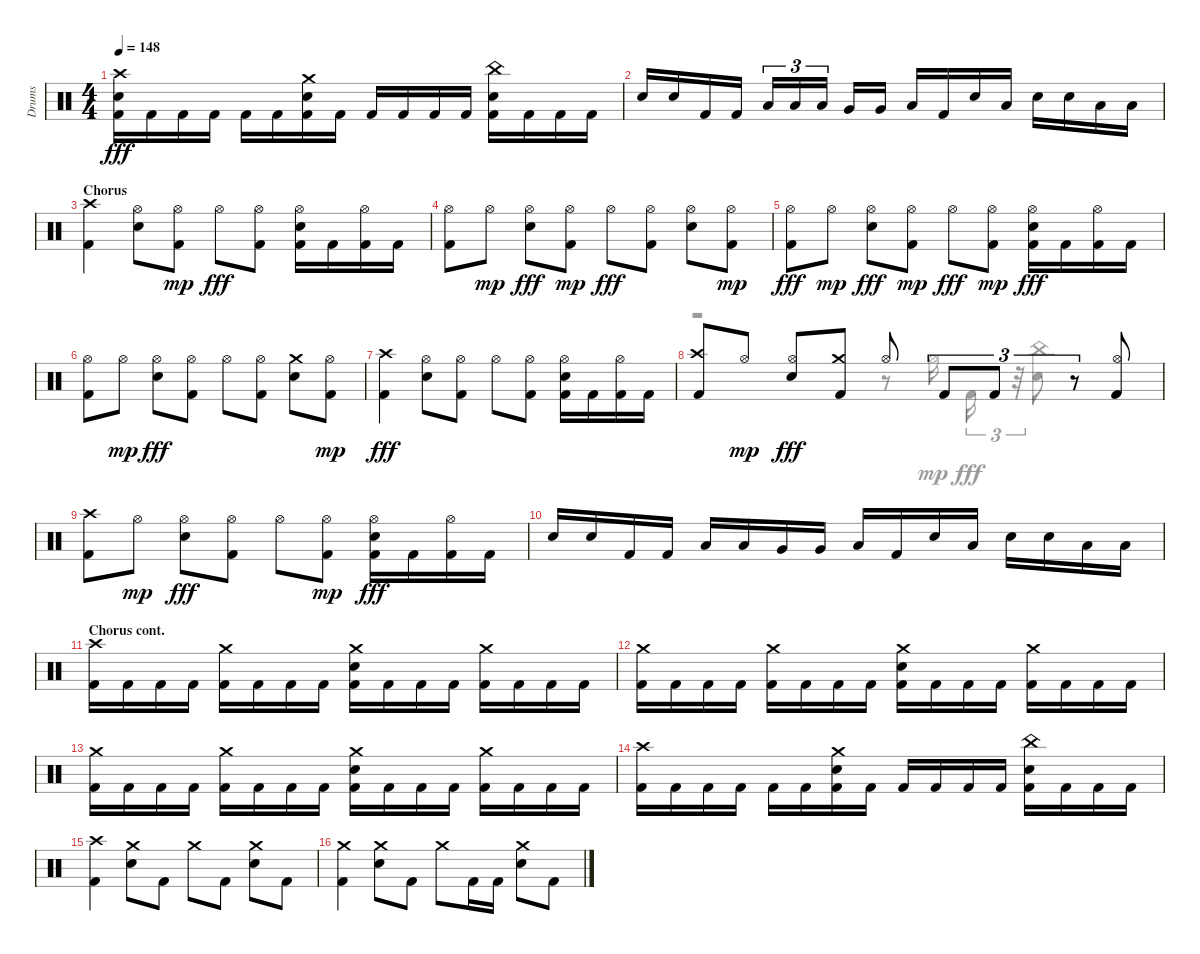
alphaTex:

\track ("Drums" "Drums") {instrument percussion}
\staff {score}
\articulation defaults
\voice
\ts (4 4)
\tempo 148
\clef neutral
\ks aminor
("Kick (hit) 2" "Snare (hit) 2" "Crash high (hit)").16{dy fff} "Kick (hit) 2".16 "Kick (hit) 2".16 "Kick (hit) 2".16 "Kick (hit) 2".16 "Kick (hit) 2".16 ("Snare (hit) 2" "Crash medium (hit)" "Kick (hit) 2").16 "Kick (hit) 2".16 "Kick (hit) 2".16 "Kick (hit) 2".16 "Kick (hit) 2".16 "Kick (hit) 2".16 ("Snare (hit) 2" "China (hit)" "Kick (hit) 2").16 "Kick (hit) 2".16 "Kick (hit) 2".16 "Kick (hit) 2".16 |
"Snare (hit) 2".16 "Snare (hit) 2".16 "Kick (hit) 2".16 "Kick (hit) 2".16 "Low Tom (hit)".16{tu (3 2)} "Low Tom (hit)".16{tu (3 2)} "Low Tom (hit)".16{tu (3 2)} "Very Low Tom (hit)".16 "Very Low Tom (hit)".16 "Low Floor Tom (hit)".16 "Kick (hit) 2".16 "Snare (hit) 2".16 "Low Floor Tom (hit)".16 "Snare (hit) 2".16 "Snare (hit) 2".16 "Low Floor Tom (hit)".16 "Low Floor Tom (hit)".16 |
\section ("" "Chorus")
("Crash high (hit)" "Kick (hit) 2").4 ("Snare (hit) 2" "Hi-Hat (open)").8 ("Kick (hit) 2" "Hi-Hat (open)").8{dy mp} "Hi-Hat (open)".8{dy fff} ("Hi-Hat (open)" "Kick (hit) 2").8 ("Hi-Hat (open)" "Kick (hit) 2" "Snare (hit) 2").16 "Kick (hit) 2".16 ("Hi-Hat (open)" "Kick (hit) 2").16 "Kick (hit) 2".16 |
("Kick (hit) 2" "Hi-Hat (open)").8 "Hi-Hat (open)".8{dy mp} ("Hi-Hat (open)" "Snare (hit) 2").8{dy fff} ("Kick (hit) 2" "Hi-Hat (open)").8{dy mp} "Hi-Hat (open)".8{dy fff} ("Kick (hit) 2" "Hi-Hat (open)").8 ("Snare (hit) 2" "Hi-Hat (open)").8 ("Kick (hit) 2" "Hi-Hat (open)").8{dy mp} |
("Kick (hit) 2" "Hi-Hat (open)").8{dy fff} "Hi-Hat (open)".8{dy mp} ("Snare (hit) 2" "Hi-Hat (open)").8{dy fff} ("Hi-Hat (open)" "Kick (hit) 2").8{dy mp} "Hi-Hat (open)".8{dy fff} ("Hi-Hat (open)" "Kick (hit) 2").8{dy mp} ("Hi-Hat (open)" "Kick (hit) 2" "Snare (hit) 2").16{dy fff} "Kick (hit) 2".16 ("Kick (hit) 2" "Hi-Hat (open)").16 "Kick (hit) 2".16 |
("Hi-Hat (open)" "Kick (hit) 2").8 "Hi-Hat (open)".8{dy mp} ("Snare (hit) 2" "Hi-Hat (open)").8{dy fff} ("Kick (hit) 2" "Hi-Hat (open)").8 "Hi-Hat (open)".8 ("Kick (hit) 2" "Hi-Hat (open)").8 ("Snare (hit) 2" "Crash medium (hit)").8 ("Kick (hit) 2" "Hi-Hat (open)").8{dy mp} |
("Kick (hit) 2" "Crash high (hit)").4{dy fff} ("Snare (hit) 2" "Hi-Hat (open)").8 ("Hi-Hat (open)" "Kick (hit) 2").8 "Hi-Hat (open)".8 ("Hi-Hat (open)" "Kick (hit) 2").8 ("Hi-Hat (open)" "Kick (hit) 2" "Snare (hit) 2").16 "Kick (hit) 2".16 ("Hi-Hat (open)" "Kick (hit) 2").16 "Kick (hit) 2".16 |
("Crash high (hit)" "Kick (hit) 2").8 "Hi-Hat (open)".8{dy mp} ("Hi-Hat (open)" "Snare (hit) 2").8{dy fff} ("Kick (hit) 2" "Crash medium (hit)").8 "Hi-Hat (open)".8 "Kick (hit) 2".8{tu (3 2)} "Kick (hit) 2".8{tu (3 2)} r.8{tu (3 2)} ("Kick (hit) 2" "Hi-Hat (open)").8 |
("Kick (hit) 2" "Crash high (hit)").8 "Hi-Hat (open)".8{dy mp} ("Snare (hit) 2" "Hi-Hat (open)").8{dy fff} ("Hi-Hat (open)" "Kick (hit) 2").8 "Hi-Hat (open)".8 ("Hi-Hat (open)" "Kick (hit) 2").8{dy mp} ("Kick (hit) 2" "Hi-Hat (open)" "Snare (hit) 2").16{dy fff} "Kick (hit) 2".16 ("Hi-Hat (open)" "Kick (hit) 2").16 "Kick (hit) 2".16 |
"Snare (hit) 2".16 "Snare (hit) 2".16 "Kick (hit) 2".16 "Kick (hit) 2".16 "Low Tom (hit)".16 "Low Tom (hit)".16 "Very Low Tom (hit)".16 "Very Low Tom (hit)".16 "Low Floor Tom (hit)".16 "Kick (hit) 2".16 "Snare (hit) 2".16 "Low Floor Tom (hit)".16 "Snare (hit) 2".16 "Snare (hit) 2".16 "Low Floor Tom (hit)".16 "Low Floor Tom (hit)".16 |
\section ("" "Chorus cont.")
("Kick (hit) 2" "Crash high (hit)").16 "Kick (hit) 2".16 "Kick (hit) 2".16 "Kick (hit) 2".16 ("Kick (hit) 2" "Crash medium (hit)").16 "Kick (hit) 2".16 "Kick (hit) 2".16 "Kick (hit) 2".16 ("Kick (hit) 2" "Snare (hit) 2" "Crash medium (hit)").16 "Kick (hit) 2".16 "Kick (hit) 2".16 "Kick (hit) 2".16 ("Crash medium (hit)" "Kick (hit) 2").16 "Kick (hit) 2".16 "Kick (hit) 2".16 "Kick (hit) 2".16 |
("Kick (hit) 2" "Crash medium (hit)").16 "Kick (hit) 2".16 "Kick (hit) 2".16 "Kick (hit) 2".16 ("Crash medium (hit)" "Kick (hit) 2").16 "Kick (hit) 2".16 "Kick (hit) 2".16 "Kick (hit) 2".16 ("Kick (hit) 2" "Crash medium (hit)" "Snare (hit) 2").16 "Kick (hit) 2".16 "Kick (hit) 2".16 "Kick (hit) 2".16 ("Kick (hit) 2" "Crash medium (hit)").16 "Kick (hit) 2".16 "Kick (hit) 2".16 "Kick (hit) 2".16 |
("Kick (hit) 2" "Crash medium (hit)").16 "Kick (hit) 2".16 "Kick (hit) 2".16 "Kick (hit) 2".16 ("Kick (hit) 2" "Crash medium (hit)").16 "Kick (hit) 2".16 "Kick (hit) 2".16 "Kick (hit) 2".16 ("Kick (hit) 2" "Snare (hit) 2" "Crash medium (hit)").16 "Kick (hit) 2".16 "Kick (hit) 2".16 "Kick (hit) 2".16 ("Crash medium (hit)" "Kick (hit) 2").16 "Kick (hit) 2".16 "Kick (hit) 2".16 "Kick (hit) 2".16 |
("Crash high (hit)" "Kick (hit) 2").16 "Kick (hit) 2".16 "Kick (hit) 2".16 "Kick (hit) 2".16 "Kick (hit) 2".16 "Kick (hit) 2".16 ("Snare (hit) 2" "Crash medium (hit)" "Kick (hit) 2").16 "Kick (hit) 2".16 "Kick (hit) 2".16 "Kick (hit) 2".16 "Kick (hit) 2".16 "Kick (hit) 2".16 ("Kick (hit) 2" "Snare (hit) 2" "China (hit)").16 "Kick (hit) 2".16 "Kick (hit) 2".16 "Kick (hit) 2".16 |
("Kick (hit) 2" "Crash high (hit)").4 ("Snare (hit) 2" "Crash medium (hit)").8 "Kick (hit) 2".8 "Crash medium (hit)".8 "Kick (hit) 2".8 ("Snare (hit) 2" "Crash medium (hit)").8 "Kick (hit) 2".8 |
("Kick (hit) 2" "Crash medium (hit)").4 ("Snare (hit) 2" "Crash medium (hit)").8 "Kick (hit) 2".8 "Crash medium (hit)".8 "Kick (hit) 2".16 "Kick (hit) 2".16 ("Snare (hit) 2" "Crash medium (hit)").8 "Kick (hit) 2".8
\voice
\clef neutral
\ottava regular
\simile none
\ks aminor
|
|
|
|
|
|
|
r.2 r.8 "Hi-Hat (open)".16{dy mp} "Kick (hit) 2".16{tu (3 2) dy fff} r.32{tu (3 2)} ("China (hit)" "Snare (hit) 2").8 |
|
|
|
|
|
|
|
